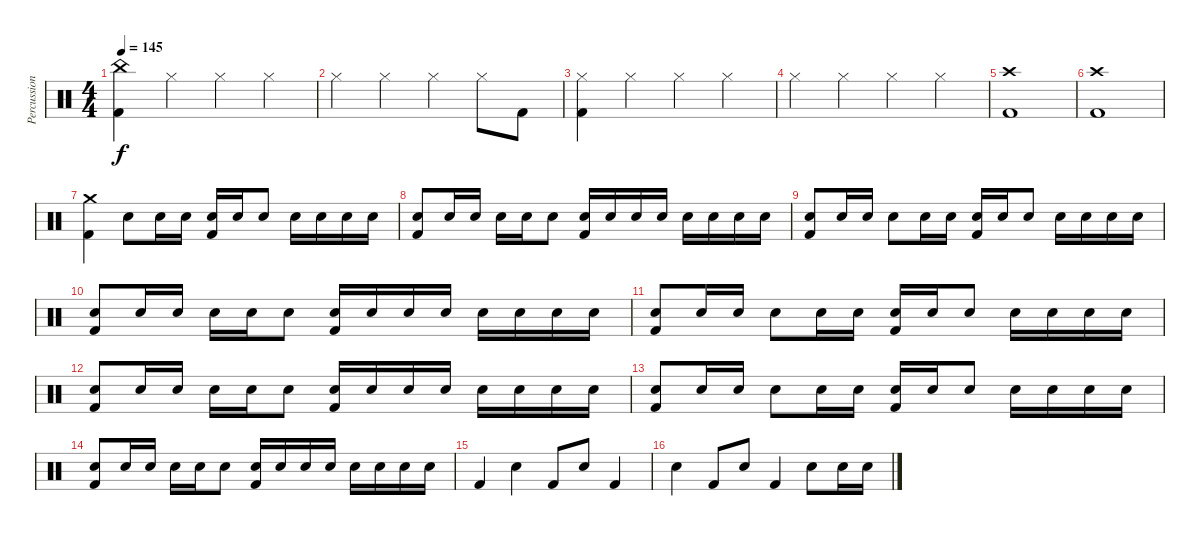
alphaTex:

\track ("Percussion" "Percussion") {instrument percussion}
\staff {score}
\articulation defaults
\ts (4 4)
\tempo 145
\clef neutral
\ks c
("China (hit)" "Kick (hit) 2").4{dy f} "Hi-Hat (closed)".4 "Hi-Hat (closed)".4 "Hi-Hat (closed)".4 |
"Hi-Hat (closed)".4 "Hi-Hat (closed)".4 "Hi-Hat (closed)".4 "Hi-Hat (closed)".8 "Kick (hit) 2".8 |
("Hi-Hat (closed)" "Kick (hit) 2").4 "Hi-Hat (closed)".4 "Hi-Hat (closed)".4 "Hi-Hat (closed)".4 |
"Hi-Hat (closed)".4 "Hi-Hat (closed)".4 "Hi-Hat (closed)".4 "Hi-Hat (closed)".4 |
("Crash high (hit)" "Kick (hit) 2").1 |
("Crash high (hit)" "Kick (hit) 2").1 |
("Crash medium (hit)" "Kick (hit) 2").4 "Snare (hit) 2".8 "Snare (hit) 2".16 "Snare (hit) 2".16 ("Snare (hit) 2" "Kick (hit) 2").16 "Snare (hit) 2".16 "Snare (hit) 2".8 "Snare (hit) 2".16 "Snare (hit) 2".16 "Snare (hit) 2".16 "Snare (hit) 2".16 |
("Snare (hit) 2" "Kick (hit) 2").8 "Snare (hit) 2".16 "Snare (hit) 2".16 "Snare (hit) 2".16 "Snare (hit) 2".16 "Snare (hit) 2".8 ("Snare (hit) 2" "Kick (hit) 2").16 "Snare (hit) 2".16 "Snare (hit) 2".16 "Snare (hit) 2".16 "Snare (hit) 2".16 "Snare (hit) 2".16 "Snare (hit) 2".16 "Snare (hit) 2".16 |
("Snare (hit) 2" "Kick (hit) 2").8 "Snare (hit) 2".16 "Snare (hit) 2".16 "Snare (hit) 2".8 "Snare (hit) 2".16 "Snare (hit) 2".16 ("Snare (hit) 2" "Kick (hit) 2").16 "Snare (hit) 2".16 "Snare (hit) 2".8 "Snare (hit) 2".16 "Snare (hit) 2".16 "Snare (hit) 2".16 "Snare (hit) 2".16 |
("Snare (hit) 2" "Kick (hit) 2").8 "Snare (hit) 2".16 "Snare (hit) 2".16 "Snare (hit) 2".16 "Snare (hit) 2".16 "Snare (hit) 2".8 ("Snare (hit) 2" "Kick (hit) 2").16 "Snare (hit) 2".16 "Snare (hit) 2".16 "Snare (hit) 2".16 "Snare (hit) 2".16 "Snare (hit) 2".16 "Snare (hit) 2".16 "Snare (hit) 2".16 |
("Snare (hit) 2" "Kick (hit) 2").8 "Snare (hit) 2".16 "Snare (hit) 2".16 "Snare (hit) 2".8 "Snare (hit) 2".16 "Snare (hit) 2".16 ("Snare (hit) 2" "Kick (hit) 2").16 "Snare (hit) 2".16 "Snare (hit) 2".8 "Snare (hit) 2".16 "Snare (hit) 2".16 "Snare (hit) 2".16 "Snare (hit) 2".16 |
("Snare (hit) 2" "Kick (hit) 2").8 "Snare (hit) 2".16 "Snare (hit) 2".16 "Snare (hit) 2".16 "Snare (hit) 2".16 "Snare (hit) 2".8 ("Snare (hit) 2" "Kick (hit) 2").16 "Snare (hit) 2".16 "Snare (hit) 2".16 "Snare (hit) 2".16 "Snare (hit) 2".16 "Snare (hit) 2".16 "Snare (hit) 2".16 "Snare (hit) 2".16 |
("Snare (hit) 2" "Kick (hit) 2").8 "Snare (hit) 2".16 "Snare (hit) 2".16 "Snare (hit) 2".8 "Snare (hit) 2".16 "Snare (hit) 2".16 ("Snare (hit) 2" "Kick (hit) 2").16 "Snare (hit) 2".16 "Snare (hit) 2".8 "Snare (hit) 2".16 "Snare (hit) 2".16 "Snare (hit) 2".16 "Snare (hit) 2".16 |
("Snare (hit) 2" "Kick (hit) 2").8 "Snare (hit) 2".16 "Snare (hit) 2".16 "Snare (hit) 2".16 "Snare (hit) 2".16 "Snare (hit) 2".8 ("Snare (hit) 2" "Kick (hit) 2").16 "Snare (hit) 2".16 "Snare (hit) 2".16 "Snare (hit) 2".16 "Snare (hit) 2".16 "Snare (hit) 2".16 "Snare (hit) 2".16 "Snare (hit) 2".16 |
"Kick (hit) 2".4 "Snare (hit) 2".4 "Kick (hit) 2".8 "Snare (hit) 2".8 "Kick (hit) 2".4 |
"Snare (hit) 2".4 "Kick (hit) 2".8 "Snare (hit) 2".8 "Kick (hit) 2".4 "Snare (hit) 2".8 "Snare (hit) 2".16 "Snare (hit) 2".16
